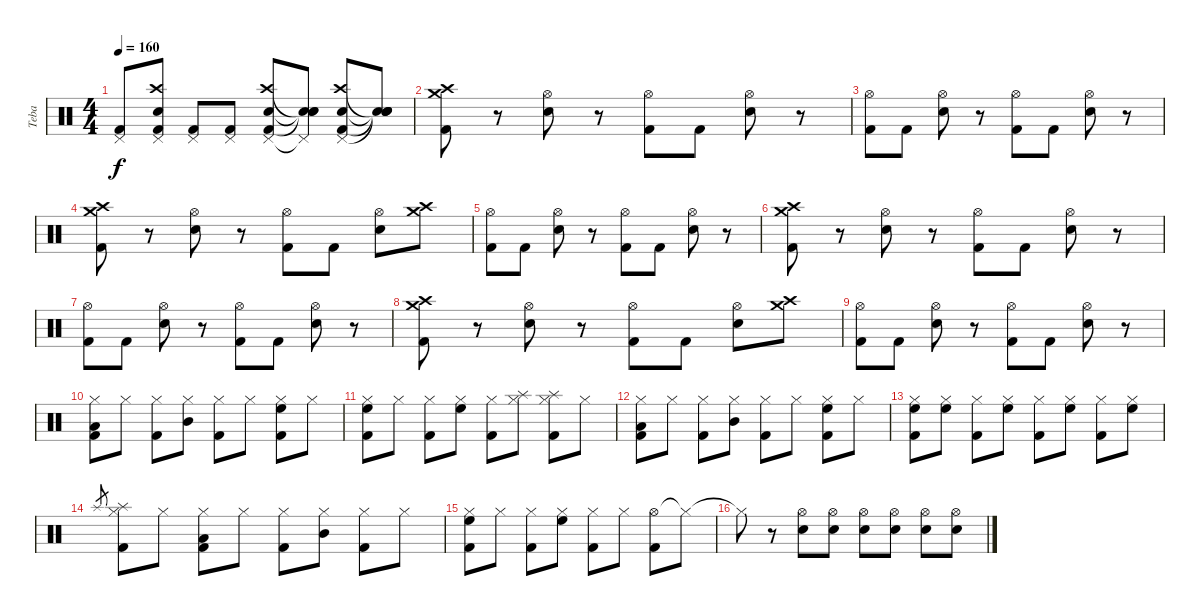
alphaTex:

\track ("Teba" "Teba") {instrument percussion}
\staff {score}
\articulation defaults
\ts (4 4)
\tempo 160
\clef neutral
\ks c
("Pedal Hi-Hat (hit)" "Kick (hit) 2").8{dy f} ("Crash high (hit)" "Pedal Hi-Hat (hit)" "Electric Snare (hit)" "Kick (hit) 2").8 ("Pedal Hi-Hat (hit)" "Kick (hit) 2").8 ("Pedal Hi-Hat (hit)" "Kick (hit) 2").8 ("Crash high (hit)" "Pedal Hi-Hat (hit)" "Electric Snare (hit)" "Kick (hit) 2").8 ("Snare (hit)"{t} "Pedal Hi-Hat (hit)"{t} "Snare (hit)"{t} "Snare (hit)"{t}).8 ("Crash high (hit)" "Pedal Hi-Hat (hit)" "Electric Snare (hit)" "Kick (hit) 2").8 ("Snare (hit)"{t} "Snare (hit)"{t} "Snare (hit)"{t} "Snare (hit)"{t}).8 |
("Crash medium (hit)" "Crash high (hit)" "Kick (hit) 2").8 r.8 ("Hi-Hat (open)" "Electric Snare (hit)").8 r.8 ("Hi-Hat (open)" "Kick (hit) 2").8 "Kick (hit) 2".8 ("Hi-Hat (open)" "Electric Snare (hit)").8 r.8 |
("Hi-Hat (open)" "Kick (hit) 2").8 "Kick (hit) 2".8 ("Hi-Hat (open)" "Electric Snare (hit)").8 r.8 ("Hi-Hat (open)" "Kick (hit) 2").8 "Kick (hit) 2".8 ("Hi-Hat (open)" "Electric Snare (hit)").8 r.8 |
("Crash medium (hit)" "Crash high (hit)" "Kick (hit) 2").8 r.8 ("Hi-Hat (open)" "Electric Snare (hit)").8 r.8 ("Hi-Hat (open)" "Kick (hit) 2").8 "Kick (hit) 2".8 ("Hi-Hat (open)" "Electric Snare (hit)").8 ("Crash medium (hit)" "Crash high (hit)").8 |
("Hi-Hat (open)" "Kick (hit) 2").8 "Kick (hit) 2".8 ("Hi-Hat (open)" "Electric Snare (hit)").8 r.8 ("Hi-Hat (open)" "Kick (hit) 2").8 "Kick (hit) 2".8 ("Hi-Hat (open)" "Electric Snare (hit)").8 r.8 |
("Crash medium (hit)" "Crash high (hit)" "Kick (hit) 2").8 r.8 ("Hi-Hat (open)" "Electric Snare (hit)").8 r.8 ("Hi-Hat (open)" "Kick (hit) 2").8 "Kick (hit) 2".8 ("Hi-Hat (open)" "Electric Snare (hit)").8 r.8 |
("Hi-Hat (open)" "Kick (hit) 2").8 "Kick (hit) 2".8 ("Hi-Hat (open)" "Electric Snare (hit)").8 r.8 ("Hi-Hat (open)" "Kick (hit) 2").8 "Kick (hit) 2".8 ("Hi-Hat (open)" "Electric Snare (hit)").8 r.8 |
("Crash medium (hit)" "Crash high (hit)" "Kick (hit) 2").8 r.8 ("Hi-Hat (open)" "Electric Snare (hit)").8 r.8 ("Hi-Hat (open)" "Kick (hit) 2").8 "Kick (hit) 2".8 ("Hi-Hat (open)" "Electric Snare (hit)").8 ("Crash medium (hit)" "Crash high (hit)").8 |
("Hi-Hat (open)" "Kick (hit) 2").8 "Kick (hit) 2".8 ("Hi-Hat (open)" "Electric Snare (hit)").8 r.8 ("Hi-Hat (open)" "Kick (hit) 2").8 "Kick (hit) 2".8 ("Hi-Hat (open)" "Electric Snare (hit)").8 r.8 |
("Hi-Hat (closed)" "Low Tom (hit)" "Kick (hit) 2").8 "Hi-Hat (closed)".8 ("Hi-Hat (closed)" "Kick (hit) 2").8 ("Hi-Hat (closed)" "Mid Tom (hit)").8 ("Hi-Hat (closed)" "Kick (hit) 2").8 "Hi-Hat (closed)".8 ("Hi-Hat (closed)" "High Floor Tom (hit)" "Kick (hit) 2").8 "Hi-Hat (closed)".8 |
("Hi-Hat (closed)" "High Floor Tom (hit)" "Kick (hit) 2").8 "Hi-Hat (closed)".8 ("Hi-Hat (closed)" "Kick (hit) 2").8 ("Hi-Hat (closed)" "High Floor Tom (hit)").8 ("Hi-Hat (closed)" "Kick (hit) 2").8 ("Splash (hit)" "Hi-Hat (closed)").8 ("Splash (hit)" "Hi-Hat (closed)" "Kick (hit) 2").8 "Hi-Hat (closed)".8 |
("Hi-Hat (closed)" "Low Tom (hit)" "Kick (hit) 2").8 "Hi-Hat (closed)".8 ("Hi-Hat (closed)" "Kick (hit) 2").8 ("Hi-Hat (closed)" "Mid Tom (hit)").8 ("Hi-Hat (closed)" "Kick (hit) 2").8 "Hi-Hat (closed)".8 ("Hi-Hat (closed)" "High Floor Tom (hit)" "Kick (hit) 2").8 "Hi-Hat (closed)".8 |
("Hi-Hat (closed)" "High Floor Tom (hit)" "Kick (hit) 2").8 ("Hi-Hat (closed)" "High Floor Tom (hit)").8 ("Hi-Hat (closed)" "Kick (hit) 2").8 ("Hi-Hat (closed)" "High Floor Tom (hit)").8 ("Hi-Hat (closed)" "Kick (hit) 2").8 ("Hi-Hat (closed)" "High Floor Tom (hit)").8 ("Hi-Hat (closed)" "Kick (hit) 2").8 ("Hi-Hat (closed)" "High Floor Tom (hit)").8 |
"Splash (hit)".8{gr} ("Splash (hit)" "Hi-Hat (closed)" "Kick (hit) 2").8 "Hi-Hat (closed)".8 ("Hi-Hat (closed)" "Low Tom (hit)" "Kick (hit) 2").8 "Hi-Hat (closed)".8 ("Hi-Hat (closed)" "Kick (hit) 2").8 ("Hi-Hat (closed)" "Mid Tom (hit)").8 ("Hi-Hat (closed)" "Kick (hit) 2").8 "Hi-Hat (closed)".8 |
("Hi-Hat (closed)" "High Floor Tom (hit)" "Kick (hit) 2").8 "Hi-Hat (closed)".8 ("Hi-Hat (closed)" "Kick (hit) 2").8 ("Hi-Hat (closed)" "High Floor Tom (hit)").8 ("Hi-Hat (closed)" "Kick (hit) 2").8 "Hi-Hat (closed)".8 ("Hi-Hat (open)" "Kick (hit) 2").8 "Hi-Hat (closed)"{t}.8 |
"Hi-Hat (closed)"{t}.8 r.8 ("Hi-Hat (open)" "Electric Snare (hit)").8 ("Hi-Hat (open)" "Electric Snare (hit)").8 ("Hi-Hat (open)" "Electric Snare (hit)").8 ("Hi-Hat (open)" "Electric Snare (hit)").8 ("Hi-Hat (open)" "Electric Snare (hit)").8 ("Hi-Hat (open)" "Electric Snare (hit)").8
